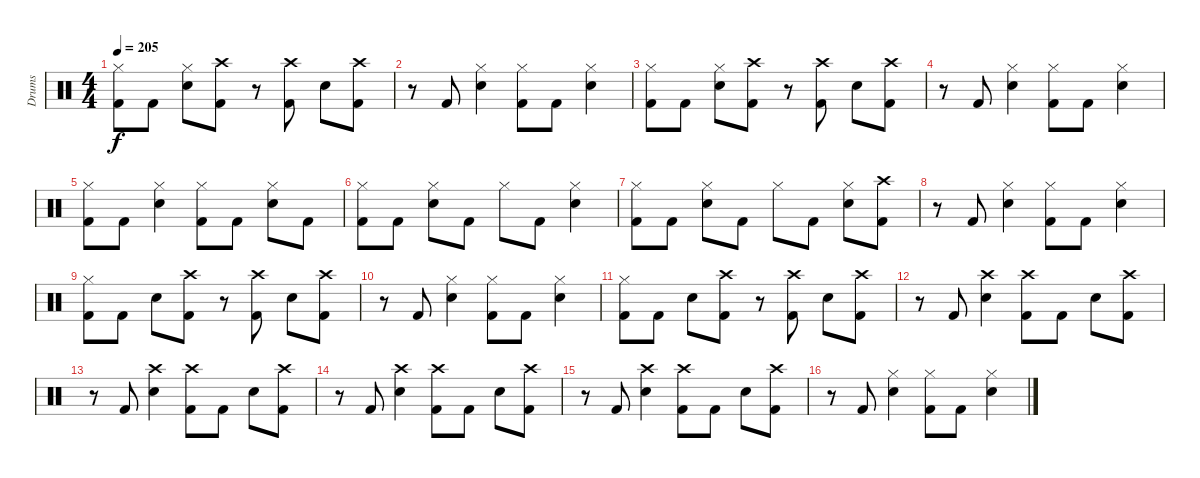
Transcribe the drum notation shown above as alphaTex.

\track ("Drums" "Drums") {instrument percussion}
\staff {score}
\articulation defaults
\ts (4 4)
\tempo 205
\clef neutral
\ks c
("Hi-Hat (closed)" "Kick (hit) 2").8{dy f} "Kick (hit) 2".8 ("Snare (hit) 2" "Hi-Hat (closed)").8 ("Kick (hit) 2" "Crash high (hit)").8 r.8 ("Crash high (hit)" "Kick (hit) 2").8 "Snare (hit) 2".8 ("Crash high (hit)" "Kick (hit) 2").8 |
r.8 "Kick (hit) 2".8 ("Snare (hit) 2" "Hi-Hat (closed)").4 ("Kick (hit) 2" "Hi-Hat (closed)").8 "Kick (hit) 2".8 ("Hi-Hat (closed)" "Snare (hit) 2").4 |
("Hi-Hat (closed)" "Kick (hit) 2").8 "Kick (hit) 2".8 ("Snare (hit) 2" "Hi-Hat (closed)").8 ("Kick (hit) 2" "Crash high (hit)").8 r.8 ("Crash high (hit)" "Kick (hit) 2").8 "Snare (hit) 2".8 ("Crash high (hit)" "Kick (hit) 2").8 |
r.8 "Kick (hit) 2".8 ("Snare (hit) 2" "Hi-Hat (closed)").4 ("Hi-Hat (closed)" "Kick (hit) 2").8 "Kick (hit) 2".8 ("Hi-Hat (closed)" "Snare (hit) 2").4 |
("Kick (hit) 2" "Hi-Hat (closed)").8 "Kick (hit) 2".8 ("Hi-Hat (closed)" "Snare (hit) 2").4 ("Kick (hit) 2" "Hi-Hat (closed)").8 "Kick (hit) 2".8 ("Hi-Hat (closed)" "Snare (hit) 2").8 "Kick (hit) 2".8 |
("Hi-Hat (closed)" "Kick (hit) 2").8 "Kick (hit) 2".8 ("Hi-Hat (closed)" "Snare (hit) 2").8 "Kick (hit) 2".8 "Hi-Hat (closed)".8 "Kick (hit) 2".8 ("Hi-Hat (closed)" "Snare (hit) 2").4 |
("Kick (hit) 2" "Hi-Hat (closed)").8 "Kick (hit) 2".8 ("Hi-Hat (closed)" "Snare (hit) 2").8 "Kick (hit) 2".8 "Hi-Hat (closed)".8 "Kick (hit) 2".8 ("Hi-Hat (closed)" "Snare (hit) 2").8 ("Kick (hit) 2" "Crash high (hit)").8 |
r.8 "Kick (hit) 2".8 ("Snare (hit) 2" "Hi-Hat (closed)").4 ("Hi-Hat (closed)" "Kick (hit) 2").8 "Kick (hit) 2".8 ("Hi-Hat (closed)" "Snare (hit) 2").4 |
("Kick (hit) 2" "Hi-Hat (closed)").8 "Kick (hit) 2".8 "Snare (hit) 2".8 ("Kick (hit) 2" "Crash high (hit)").8 r.8 ("Kick (hit) 2" "Crash high (hit)").8 "Snare (hit) 2".8 ("Kick (hit) 2" "Crash high (hit)").8 |
r.8 "Kick (hit) 2".8 ("Snare (hit) 2" "Hi-Hat (closed)").4 ("Hi-Hat (closed)" "Kick (hit) 2").8 "Kick (hit) 2".8 ("Hi-Hat (closed)" "Snare (hit) 2").4 |
("Kick (hit) 2" "Hi-Hat (closed)").8 "Kick (hit) 2".8 "Snare (hit) 2".8 ("Kick (hit) 2" "Crash high (hit)").8 r.8 ("Kick (hit) 2" "Crash high (hit)").8 "Snare (hit) 2".8 ("Kick (hit) 2" "Crash high (hit)").8 |
r.8 "Kick (hit) 2".8 ("Snare (hit) 2" "Crash high (hit)").4 ("Crash high (hit)" "Kick (hit) 2").8 "Kick (hit) 2".8 "Snare (hit) 2".8 ("Kick (hit) 2" "Crash high (hit)").8 |
r.8 "Kick (hit) 2".8 ("Snare (hit) 2" "Crash high (hit)").4 ("Crash high (hit)" "Kick (hit) 2").8 "Kick (hit) 2".8 "Snare (hit) 2".8 ("Kick (hit) 2" "Crash high (hit)").8 |
r.8 "Kick (hit) 2".8 ("Snare (hit) 2" "Crash high (hit)").4 ("Crash high (hit)" "Kick (hit) 2").8 "Kick (hit) 2".8 "Snare (hit) 2".8 ("Kick (hit) 2" "Crash high (hit)").8 |
r.8 "Kick (hit) 2".8 ("Snare (hit) 2" "Crash high (hit)").4 ("Crash high (hit)" "Kick (hit) 2").8 "Kick (hit) 2".8 "Snare (hit) 2".8 ("Kick (hit) 2" "Crash high (hit)").8 |
r.8 "Kick (hit) 2".8 ("Snare (hit) 2" "Hi-Hat (closed)").4 ("Kick (hit) 2" "Hi-Hat (closed)").8 "Kick (hit) 2".8 ("Hi-Hat (closed)" "Snare (hit) 2").4
